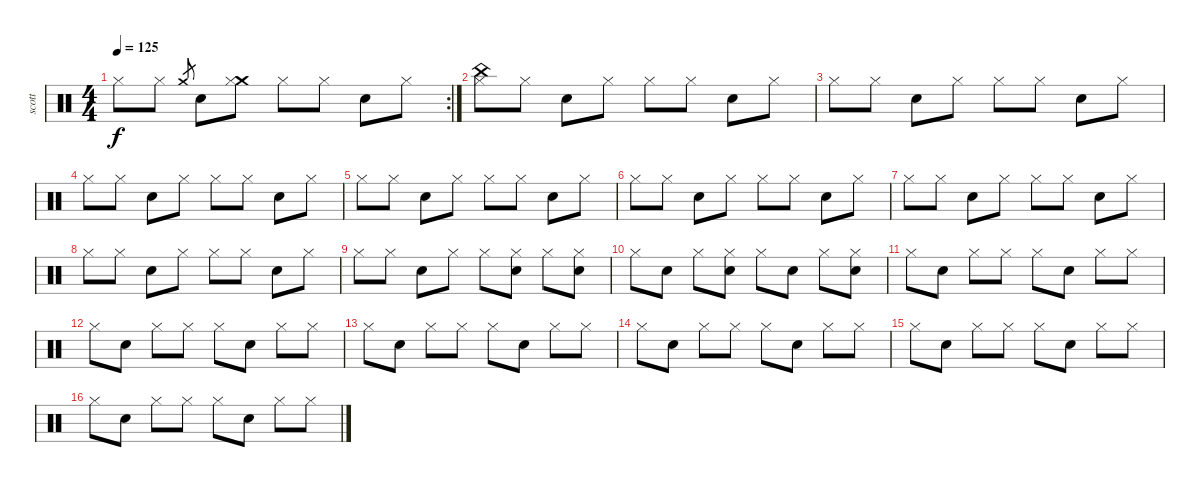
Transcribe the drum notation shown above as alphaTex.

\track ("scott" "scott") {instrument percussion}
\staff {score}
\articulation defaults
\rc 2
\ts (4 4)
\tempo 125
\clef neutral
\ks c "Hi-Hat (closed)".8{dy f} "Hi-Hat (closed)".8 "Crash medium (hit)".8{gr} "Snare (hit) 2".8
("Crash medium (hit)" "Hi-Hat (closed)").8 "Hi-Hat (closed)".8 "Hi-Hat (closed)".8 "Snare (hit) 2".8 "Hi-Hat (closed)".8 |
("China (hit)" "Hi-Hat (closed)").8 "Hi-Hat (closed)".8 "Snare (hit) 2".8 "Hi-Hat (closed)".8 "Hi-Hat (closed)".8 "Hi-Hat (closed)".8 "Snare (hit) 2".8 "Hi-Hat (closed)".8 |
"Hi-Hat (closed)".8 "Hi-Hat (closed)".8 "Snare (hit) 2".8 "Hi-Hat (closed)".8 "Hi-Hat (closed)".8 "Hi-Hat (closed)".8 "Snare (hit) 2".8 "Hi-Hat (closed)".8 |
"Hi-Hat (closed)".8 "Hi-Hat (closed)".8 "Snare (hit) 2".8 "Hi-Hat (closed)".8 "Hi-Hat (closed)".8 "Hi-Hat (closed)".8 "Snare (hit) 2".8 "Hi-Hat (closed)".8 |
"Hi-Hat (closed)".8 "Hi-Hat (closed)".8 "Snare (hit) 2".8 "Hi-Hat (closed)".8 "Hi-Hat (closed)".8 "Hi-Hat (closed)".8 "Snare (hit) 2".8 "Hi-Hat (closed)".8 |
"Hi-Hat (closed)".8 "Hi-Hat (closed)".8 "Snare (hit) 2".8 "Hi-Hat (closed)".8 "Hi-Hat (closed)".8 "Hi-Hat (closed)".8 "Snare (hit) 2".8 "Hi-Hat (closed)".8 |
"Hi-Hat (closed)".8 "Hi-Hat (closed)".8 "Snare (hit) 2".8 "Hi-Hat (closed)".8 "Hi-Hat (closed)".8 "Hi-Hat (closed)".8 "Snare (hit) 2".8 "Hi-Hat (closed)".8 |
"Hi-Hat (closed)".8 "Hi-Hat (closed)".8 "Snare (hit) 2".8 "Hi-Hat (closed)".8 "Hi-Hat (closed)".8 "Hi-Hat (closed)".8 "Snare (hit) 2".8 "Hi-Hat (closed)".8 |
"Hi-Hat (closed)".8 "Hi-Hat (closed)".8 "Snare (hit) 2".8 "Hi-Hat (closed)".8 "Hi-Hat (closed)".8 ("Snare (hit) 2" "Hi-Hat (closed)").8 "Hi-Hat (closed)".8 ("Snare (hit) 2" "Hi-Hat (closed)").8 |
"Hi-Hat (closed)".8 "Snare (hit) 2".8 "Hi-Hat (closed)".8 ("Snare (hit) 2" "Hi-Hat (closed)").8 "Hi-Hat (closed)".8 "Snare (hit) 2".8 "Hi-Hat (closed)".8 ("Snare (hit) 2" "Hi-Hat (closed)").8 |
"Hi-Hat (closed)".8 "Snare (hit) 2".8 "Hi-Hat (closed)".8 "Hi-Hat (closed)".8 "Hi-Hat (closed)".8 "Snare (hit) 2".8 "Hi-Hat (closed)".8 "Hi-Hat (closed)".8 |
"Hi-Hat (closed)".8 "Snare (hit) 2".8 "Hi-Hat (closed)".8 "Hi-Hat (closed)".8 "Hi-Hat (closed)".8 "Snare (hit) 2".8 "Hi-Hat (closed)".8 "Hi-Hat (closed)".8 |
"Hi-Hat (closed)".8 "Snare (hit) 2".8 "Hi-Hat (closed)".8 "Hi-Hat (closed)".8 "Hi-Hat (closed)".8 "Snare (hit) 2".8 "Hi-Hat (closed)".8 "Hi-Hat (closed)".8 |
"Hi-Hat (closed)".8 "Snare (hit) 2".8 "Hi-Hat (closed)".8 "Hi-Hat (closed)".8 "Hi-Hat (closed)".8 "Snare (hit) 2".8 "Hi-Hat (closed)".8 "Hi-Hat (closed)".8 |
"Hi-Hat (closed)".8 "Snare (hit) 2".8 "Hi-Hat (closed)".8 "Hi-Hat (closed)".8 "Hi-Hat (closed)".8 "Snare (hit) 2".8 "Hi-Hat (closed)".8 "Hi-Hat (closed)".8 |
"Hi-Hat (closed)".8 "Snare (hit) 2".8 "Hi-Hat (closed)".8 "Hi-Hat (closed)".8 "Hi-Hat (closed)".8 "Snare (hit) 2".8 "Hi-Hat (closed)".8 "Hi-Hat (closed)".8
